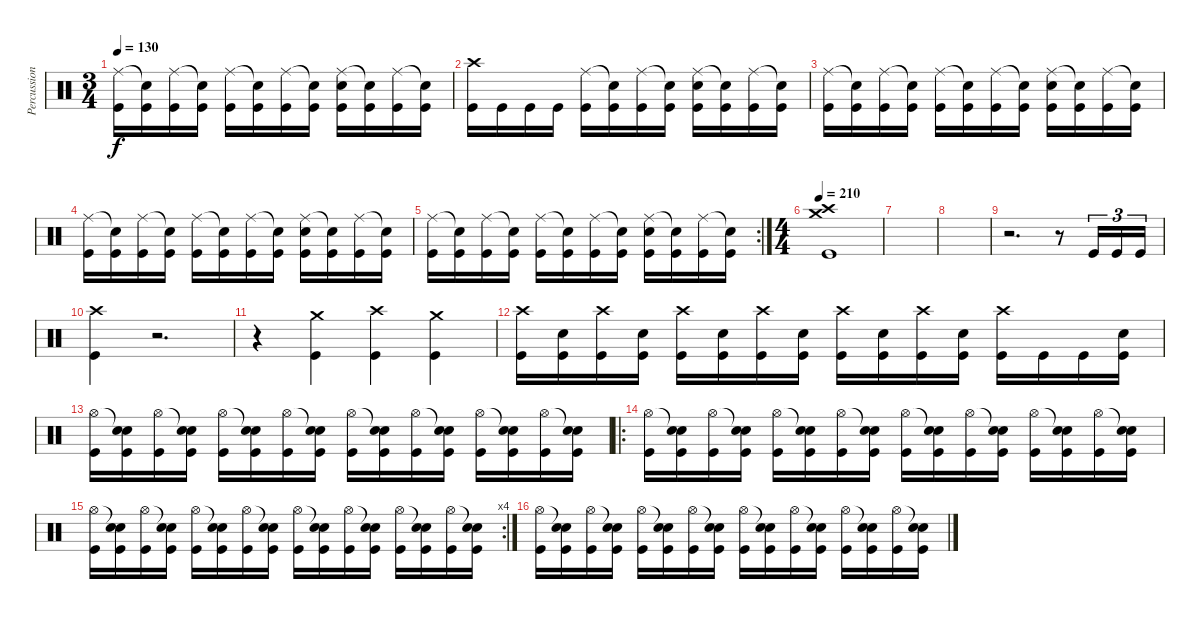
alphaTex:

\track ("Percussion" "Percussion") {instrument percussion}
\staff {score}
\articulation defaults
\ts (3 4)
\tempo 130
\clef neutral
\ks c
("Ride (middle)" "Kick (hit)").16{dy f} ("Snare (hit)"{t} "Kick (hit)").16 ("Ride (middle)" "Kick (hit)").16 ("Snare (hit)"{t} "Kick (hit)").16 ("Ride (middle)" "Kick (hit)").16 ("Snare (hit)"{t} "Kick (hit)").16 ("Ride (middle)" "Kick (hit)").16 ("Snare (hit)"{t} "Kick (hit)").16 ("Ride (middle)" "Electric Snare (hit)" "Kick (hit)").16 ("Snare (hit)"{t} "Kick (hit)").16 ("Ride (middle)" "Kick (hit)").16 ("Snare (hit)"{t} "Kick (hit)").16 |
("Crash high (hit)" "Kick (hit)").16 "Kick (hit)".16 "Kick (hit)".16 "Kick (hit)".16 ("Ride (middle)" "Kick (hit)").16 ("Snare (hit)"{t} "Kick (hit)").16 ("Ride (middle)" "Kick (hit)").16 ("Snare (hit)"{t} "Kick (hit)").16 ("Ride (middle)" "Electric Snare (hit)" "Kick (hit)").16 ("Snare (hit)"{t} "Kick (hit)").16 ("Ride (middle)" "Kick (hit)").16 ("Snare (hit)"{t} "Kick (hit)").16 |
("Ride (middle)" "Kick (hit)").16 ("Snare (hit)"{t} "Kick (hit)").16 ("Ride (middle)" "Kick (hit)").16 ("Snare (hit)"{t} "Kick (hit)").16 ("Ride (middle)" "Kick (hit)").16 ("Snare (hit)"{t} "Kick (hit)").16 ("Ride (middle)" "Kick (hit)").16 ("Snare (hit)"{t} "Kick (hit)").16 ("Ride (middle)" "Electric Snare (hit)" "Kick (hit)").16 ("Snare (hit)"{t} "Kick (hit)").16 ("Ride (middle)" "Kick (hit)").16 ("Snare (hit)"{t} "Kick (hit)").16 |
("Ride (middle)" "Kick (hit)").16 ("Snare (hit)"{t} "Kick (hit)").16 ("Ride (middle)" "Kick (hit)").16 ("Snare (hit)"{t} "Kick (hit)").16 ("Ride (middle)" "Kick (hit)").16 ("Snare (hit)"{t} "Kick (hit)").16 ("Ride (middle)" "Kick (hit)").16 ("Snare (hit)"{t} "Kick (hit)").16 ("Ride (middle)" "Electric Snare (hit)" "Kick (hit)").16 ("Snare (hit)"{t} "Kick (hit)").16 ("Ride (middle)" "Kick (hit)").16 ("Snare (hit)"{t} "Kick (hit)").16 |
\rc 2
("Ride (middle)" "Kick (hit)").16 ("Snare (hit)"{t} "Kick (hit)").16 ("Ride (middle)" "Kick (hit)").16 ("Snare (hit)"{t} "Kick (hit)").16 ("Ride (middle)" "Kick (hit)").16 ("Snare (hit)"{t} "Kick (hit)").16 ("Ride (middle)" "Kick (hit)").16 ("Snare (hit)"{t} "Kick (hit)").16 ("Ride (middle)" "Electric Snare (hit)" "Kick (hit)").16 ("Snare (hit)"{t} "Kick (hit)").16 ("Ride (middle)" "Kick (hit)").16 ("Snare (hit)"{t} "Kick (hit)").16 |
\ts (4 4)
\tempo 210
("Crash medium (hit)" "Crash high (hit)" "Kick (hit)").1 |
|
|
r.2{d} r.8 "Kick (hit)".16{tu (3 2)} "Kick (hit)".16{tu (3 2)} "Kick (hit)".16{tu (3 2)} |
("Crash high (hit)" "Kick (hit)").4 r.2{d} |
r.4 ("Crash medium (hit)" "Kick (hit)").4 ("Crash high (hit)" "Kick (hit)").4 ("Crash medium (hit)" "Kick (hit)").4 |
("Crash high (hit)" "Kick (hit)").16 ("Electric Snare (hit)" "Kick (hit)").16 ("Crash high (hit)" "Kick (hit)").16 ("Electric Snare (hit)" "Kick (hit)").16 ("Crash high (hit)" "Kick (hit)").16 ("Electric Snare (hit)" "Kick (hit)").16 ("Crash high (hit)" "Kick (hit)").16 ("Electric Snare (hit)" "Kick (hit)").16 ("Crash high (hit)" "Kick (hit)").16 ("Electric Snare (hit)" "Kick (hit)").16 ("Crash high (hit)" "Kick (hit)").16 ("Electric Snare (hit)" "Kick (hit)").16 ("Crash high (hit)" "Kick (hit)").16 "Kick (hit)".16 "Kick (hit)".16 ("Electric Snare (hit)" "Kick (hit)").16 |
("Hi-Hat (open)" "Kick (hit)").16 ("Snare (hit)"{t} "Electric Snare (hit)" "Kick (hit)").16 ("Hi-Hat (open)" "Kick (hit)").16 ("Snare (hit)"{t} "Electric Snare (hit)" "Kick (hit)").16 ("Hi-Hat (open)" "Kick (hit)").16 ("Snare (hit)"{t} "Electric Snare (hit)" "Kick (hit)").16 ("Hi-Hat (open)" "Kick (hit)").16 ("Snare (hit)"{t} "Electric Snare (hit)" "Kick (hit)").16 ("Hi-Hat (open)" "Kick (hit)").16 ("Snare (hit)"{t} "Electric Snare (hit)" "Kick (hit)").16 ("Hi-Hat (open)" "Kick (hit)").16 ("Snare (hit)"{t} "Electric Snare (hit)" "Kick (hit)").16 ("Hi-Hat (open)" "Kick (hit)").16 ("Snare (hit)"{t} "Electric Snare (hit)" "Kick (hit)").16 ("Hi-Hat (open)" "Kick (hit)").16 ("Snare (hit)"{t} "Electric Snare (hit)" "Kick (hit)").16 |
\ro
("Hi-Hat (open)" "Kick (hit)").16 ("Snare (hit)"{t} "Electric Snare (hit)" "Kick (hit)").16 ("Hi-Hat (open)" "Kick (hit)").16 ("Snare (hit)"{t} "Electric Snare (hit)" "Kick (hit)").16 ("Hi-Hat (open)" "Kick (hit)").16 ("Snare (hit)"{t} "Electric Snare (hit)" "Kick (hit)").16 ("Hi-Hat (open)" "Kick (hit)").16 ("Snare (hit)"{t} "Electric Snare (hit)" "Kick (hit)").16 ("Hi-Hat (open)" "Kick (hit)").16 ("Snare (hit)"{t} "Electric Snare (hit)" "Kick (hit)").16 ("Hi-Hat (open)" "Kick (hit)").16 ("Snare (hit)"{t} "Electric Snare (hit)" "Kick (hit)").16 ("Hi-Hat (open)" "Kick (hit)").16 ("Snare (hit)"{t} "Electric Snare (hit)" "Kick (hit)").16 ("Hi-Hat (open)" "Kick (hit)").16 ("Snare (hit)"{t} "Electric Snare (hit)" "Kick (hit)").16 |
\rc 4
("Hi-Hat (open)" "Kick (hit)").16 ("Snare (hit)"{t} "Electric Snare (hit)" "Kick (hit)").16 ("Hi-Hat (open)" "Kick (hit)").16 ("Snare (hit)"{t} "Electric Snare (hit)" "Kick (hit)").16 ("Hi-Hat (open)" "Kick (hit)").16 ("Snare (hit)"{t} "Electric Snare (hit)" "Kick (hit)").16 ("Hi-Hat (open)" "Kick (hit)").16 ("Snare (hit)"{t} "Electric Snare (hit)" "Kick (hit)").16 ("Hi-Hat (open)" "Kick (hit)").16 ("Snare (hit)"{t} "Electric Snare (hit)" "Kick (hit)").16 ("Hi-Hat (open)" "Kick (hit)").16 ("Snare (hit)"{t} "Electric Snare (hit)" "Kick (hit)").16 ("Hi-Hat (open)" "Kick (hit)").16 ("Snare (hit)"{t} "Electric Snare (hit)" "Kick (hit)").16 ("Hi-Hat (open)" "Kick (hit)").16 ("Snare (hit)"{t} "Electric Snare (hit)" "Kick (hit)").16 |
("Hi-Hat (open)" "Kick (hit)").16 ("Snare (hit)"{t} "Electric Snare (hit)" "Kick (hit)").16 ("Hi-Hat (open)" "Kick (hit)").16 ("Snare (hit)"{t} "Electric Snare (hit)" "Kick (hit)").16 ("Hi-Hat (open)" "Kick (hit)").16 ("Snare (hit)"{t} "Electric Snare (hit)" "Kick (hit)").16 ("Hi-Hat (open)" "Kick (hit)").16 ("Snare (hit)"{t} "Electric Snare (hit)" "Kick (hit)").16 ("Hi-Hat (open)" "Kick (hit)").16 ("Snare (hit)"{t} "Electric Snare (hit)" "Kick (hit)").16 ("Hi-Hat (open)" "Kick (hit)").16 ("Snare (hit)"{t} "Electric Snare (hit)" "Kick (hit)").16 ("Hi-Hat (open)" "Kick (hit)").16 ("Snare (hit)"{t} "Electric Snare (hit)" "Kick (hit)").16 ("Hi-Hat (open)" "Kick (hit)").16 ("Snare (hit)"{t} "Electric Snare (hit)" "Kick (hit)").16
